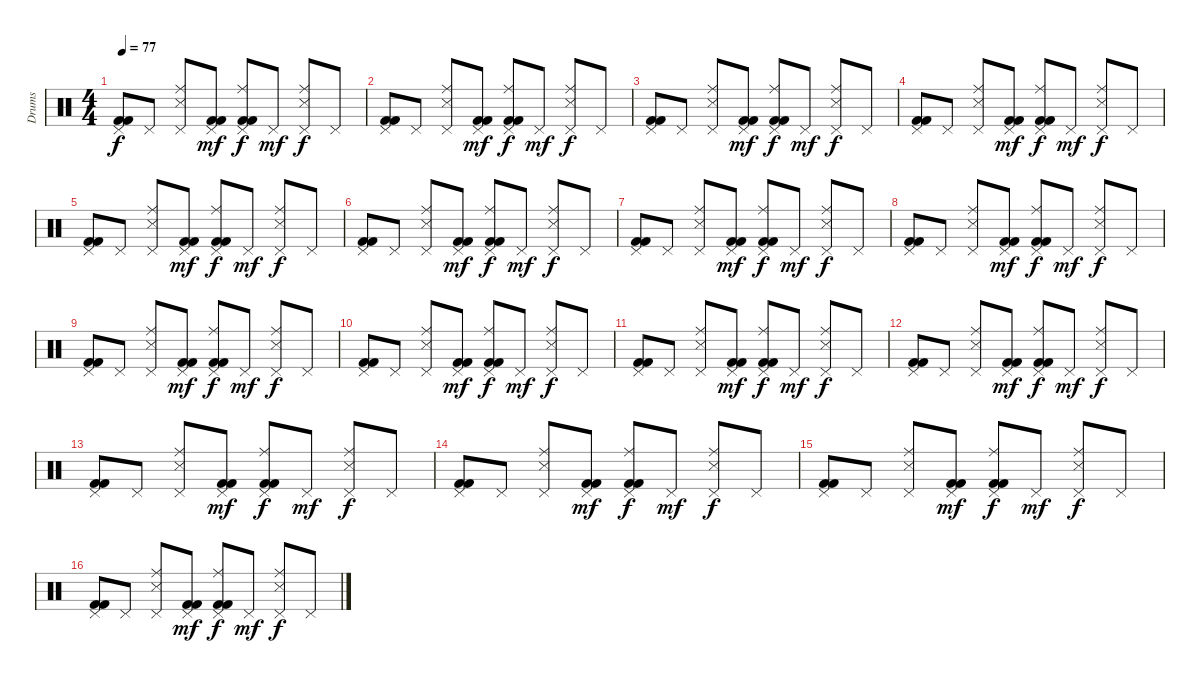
\track ("Drums" "Drums") {instrument percussion}
\staff {score}
\articulation defaults
\ts (4 4)
\tempo 77
\clef neutral
\ks c
("Pedal Hi-Hat (hit)" "Kick (hit) 2" "Kick (hit) 2").8{dy f} "Pedal Hi-Hat (hit)".8 ("Pedal Hi-Hat (hit)" "Ride (middle)" "Snare (side stick) 3").8 ("Pedal Hi-Hat (hit)" "Kick (hit) 2" "Kick (hit) 2").8{dy mf} ("Pedal Hi-Hat (hit)" "Ride (middle)" "Kick (hit) 2" "Kick (hit) 2").8{dy f} "Pedal Hi-Hat (hit)".8{dy mf} ("Pedal Hi-Hat (hit)" "Ride (middle)" "Snare (side stick) 3").8{dy f} "Pedal Hi-Hat (hit)".8 |
("Pedal Hi-Hat (hit)" "Kick (hit) 2" "Kick (hit) 2").8 "Pedal Hi-Hat (hit)".8 ("Pedal Hi-Hat (hit)" "Ride (middle)" "Snare (side stick) 3").8 ("Pedal Hi-Hat (hit)" "Kick (hit) 2" "Kick (hit) 2").8{dy mf} ("Pedal Hi-Hat (hit)" "Ride (middle)" "Kick (hit) 2" "Kick (hit) 2").8{dy f} "Pedal Hi-Hat (hit)".8{dy mf} ("Pedal Hi-Hat (hit)" "Ride (middle)" "Snare (side stick) 3").8{dy f} "Pedal Hi-Hat (hit)".8 |
("Pedal Hi-Hat (hit)" "Kick (hit) 2" "Kick (hit) 2").8 "Pedal Hi-Hat (hit)".8 ("Pedal Hi-Hat (hit)" "Ride (middle)" "Snare (side stick) 3").8 ("Pedal Hi-Hat (hit)" "Kick (hit) 2" "Kick (hit) 2").8{dy mf} ("Pedal Hi-Hat (hit)" "Ride (middle)" "Kick (hit) 2" "Kick (hit) 2").8{dy f} "Pedal Hi-Hat (hit)".8{dy mf} ("Pedal Hi-Hat (hit)" "Ride (middle)" "Snare (side stick) 3").8{dy f} "Pedal Hi-Hat (hit)".8 |
("Pedal Hi-Hat (hit)" "Kick (hit) 2" "Kick (hit) 2").8 "Pedal Hi-Hat (hit)".8 ("Pedal Hi-Hat (hit)" "Ride (middle)" "Snare (side stick) 3").8 ("Pedal Hi-Hat (hit)" "Kick (hit) 2" "Kick (hit) 2").8{dy mf} ("Pedal Hi-Hat (hit)" "Ride (middle)" "Kick (hit) 2" "Kick (hit) 2").8{dy f} "Pedal Hi-Hat (hit)".8{dy mf} ("Pedal Hi-Hat (hit)" "Ride (middle)" "Snare (side stick) 3").8{dy f} "Pedal Hi-Hat (hit)".8 |
("Pedal Hi-Hat (hit)" "Kick (hit) 2" "Kick (hit) 2").8 "Pedal Hi-Hat (hit)".8 ("Pedal Hi-Hat (hit)" "Ride (middle)" "Snare (side stick) 3").8 ("Pedal Hi-Hat (hit)" "Kick (hit) 2" "Kick (hit) 2").8{dy mf} ("Pedal Hi-Hat (hit)" "Ride (middle)" "Kick (hit) 2" "Kick (hit) 2").8{dy f} "Pedal Hi-Hat (hit)".8{dy mf} ("Pedal Hi-Hat (hit)" "Ride (middle)" "Snare (side stick) 3").8{dy f} "Pedal Hi-Hat (hit)".8 |
("Pedal Hi-Hat (hit)" "Kick (hit) 2" "Kick (hit) 2").8 "Pedal Hi-Hat (hit)".8 ("Pedal Hi-Hat (hit)" "Ride (middle)" "Snare (side stick) 3").8 ("Pedal Hi-Hat (hit)" "Kick (hit) 2" "Kick (hit) 2").8{dy mf} ("Pedal Hi-Hat (hit)" "Ride (middle)" "Kick (hit) 2" "Kick (hit) 2").8{dy f} "Pedal Hi-Hat (hit)".8{dy mf} ("Pedal Hi-Hat (hit)" "Ride (middle)" "Snare (side stick) 3").8{dy f} "Pedal Hi-Hat (hit)".8 |
("Pedal Hi-Hat (hit)" "Kick (hit) 2" "Kick (hit) 2").8 "Pedal Hi-Hat (hit)".8 ("Pedal Hi-Hat (hit)" "Ride (middle)" "Snare (side stick) 3").8 ("Pedal Hi-Hat (hit)" "Kick (hit) 2" "Kick (hit) 2").8{dy mf} ("Pedal Hi-Hat (hit)" "Ride (middle)" "Kick (hit) 2" "Kick (hit) 2").8{dy f} "Pedal Hi-Hat (hit)".8{dy mf} ("Pedal Hi-Hat (hit)" "Ride (middle)" "Snare (side stick) 3").8{dy f} "Pedal Hi-Hat (hit)".8 |
("Pedal Hi-Hat (hit)" "Kick (hit) 2" "Kick (hit) 2").8 "Pedal Hi-Hat (hit)".8 ("Pedal Hi-Hat (hit)" "Ride (middle)" "Snare (side stick) 3").8 ("Pedal Hi-Hat (hit)" "Kick (hit) 2" "Kick (hit) 2").8{dy mf} ("Pedal Hi-Hat (hit)" "Ride (middle)" "Kick (hit) 2" "Kick (hit) 2").8{dy f} "Pedal Hi-Hat (hit)".8{dy mf} ("Pedal Hi-Hat (hit)" "Ride (middle)" "Snare (side stick) 3").8{dy f} "Pedal Hi-Hat (hit)".8 |
("Pedal Hi-Hat (hit)" "Kick (hit) 2" "Kick (hit) 2").8 "Pedal Hi-Hat (hit)".8 ("Pedal Hi-Hat (hit)" "Ride (middle)" "Snare (side stick) 3").8 ("Pedal Hi-Hat (hit)" "Kick (hit) 2" "Kick (hit) 2").8{dy mf} ("Pedal Hi-Hat (hit)" "Ride (middle)" "Kick (hit) 2" "Kick (hit) 2").8{dy f} "Pedal Hi-Hat (hit)".8{dy mf} ("Pedal Hi-Hat (hit)" "Ride (middle)" "Snare (side stick) 3").8{dy f} "Pedal Hi-Hat (hit)".8 |
("Pedal Hi-Hat (hit)" "Kick (hit) 2" "Kick (hit) 2").8 "Pedal Hi-Hat (hit)".8 ("Pedal Hi-Hat (hit)" "Ride (middle)" "Snare (side stick) 3").8 ("Pedal Hi-Hat (hit)" "Kick (hit) 2" "Kick (hit) 2").8{dy mf} ("Pedal Hi-Hat (hit)" "Ride (middle)" "Kick (hit) 2" "Kick (hit) 2").8{dy f} "Pedal Hi-Hat (hit)".8{dy mf} ("Pedal Hi-Hat (hit)" "Ride (middle)" "Snare (side stick) 3").8{dy f} "Pedal Hi-Hat (hit)".8 |
("Pedal Hi-Hat (hit)" "Kick (hit) 2" "Kick (hit) 2").8 "Pedal Hi-Hat (hit)".8 ("Pedal Hi-Hat (hit)" "Ride (middle)" "Snare (side stick) 3").8 ("Pedal Hi-Hat (hit)" "Kick (hit) 2" "Kick (hit) 2").8{dy mf} ("Pedal Hi-Hat (hit)" "Ride (middle)" "Kick (hit) 2" "Kick (hit) 2").8{dy f} "Pedal Hi-Hat (hit)".8{dy mf} ("Pedal Hi-Hat (hit)" "Ride (middle)" "Snare (side stick) 3").8{dy f} "Pedal Hi-Hat (hit)".8 |
("Pedal Hi-Hat (hit)" "Kick (hit) 2" "Kick (hit) 2").8 "Pedal Hi-Hat (hit)".8 ("Pedal Hi-Hat (hit)" "Ride (middle)" "Snare (side stick) 3").8 ("Pedal Hi-Hat (hit)" "Kick (hit) 2" "Kick (hit) 2").8{dy mf} ("Pedal Hi-Hat (hit)" "Ride (middle)" "Kick (hit) 2" "Kick (hit) 2").8{dy f} "Pedal Hi-Hat (hit)".8{dy mf} ("Pedal Hi-Hat (hit)" "Ride (middle)" "Snare (side stick) 3").8{dy f} "Pedal Hi-Hat (hit)".8 |
("Pedal Hi-Hat (hit)" "Kick (hit) 2" "Kick (hit) 2").8 "Pedal Hi-Hat (hit)".8 ("Pedal Hi-Hat (hit)" "Ride (middle)" "Snare (side stick) 3").8 ("Pedal Hi-Hat (hit)" "Kick (hit) 2" "Kick (hit) 2").8{dy mf} ("Pedal Hi-Hat (hit)" "Ride (middle)" "Kick (hit) 2" "Kick (hit) 2").8{dy f} "Pedal Hi-Hat (hit)".8{dy mf} ("Pedal Hi-Hat (hit)" "Ride (middle)" "Snare (side stick) 3").8{dy f} "Pedal Hi-Hat (hit)".8 |
("Pedal Hi-Hat (hit)" "Kick (hit) 2" "Kick (hit) 2").8 "Pedal Hi-Hat (hit)".8 ("Pedal Hi-Hat (hit)" "Ride (middle)" "Snare (side stick) 3").8 ("Pedal Hi-Hat (hit)" "Kick (hit) 2" "Kick (hit) 2").8{dy mf} ("Pedal Hi-Hat (hit)" "Ride (middle)" "Kick (hit) 2" "Kick (hit) 2").8{dy f} "Pedal Hi-Hat (hit)".8{dy mf} ("Pedal Hi-Hat (hit)" "Ride (middle)" "Snare (side stick) 3").8{dy f} "Pedal Hi-Hat (hit)".8 |
("Pedal Hi-Hat (hit)" "Kick (hit) 2" "Kick (hit) 2").8 "Pedal Hi-Hat (hit)".8 ("Pedal Hi-Hat (hit)" "Ride (middle)" "Snare (side stick) 3").8 ("Pedal Hi-Hat (hit)" "Kick (hit) 2" "Kick (hit) 2").8{dy mf} ("Pedal Hi-Hat (hit)" "Ride (middle)" "Kick (hit) 2" "Kick (hit) 2").8{dy f} "Pedal Hi-Hat (hit)".8{dy mf} ("Pedal Hi-Hat (hit)" "Ride (middle)" "Snare (side stick) 3").8{dy f} "Pedal Hi-Hat (hit)".8 |
("Pedal Hi-Hat (hit)" "Kick (hit) 2" "Kick (hit) 2").8 "Pedal Hi-Hat (hit)".8 ("Pedal Hi-Hat (hit)" "Ride (middle)" "Snare (side stick) 3").8 ("Pedal Hi-Hat (hit)" "Kick (hit) 2" "Kick (hit) 2").8{dy mf} ("Pedal Hi-Hat (hit)" "Ride (middle)" "Kick (hit) 2" "Kick (hit) 2").8{dy f} "Pedal Hi-Hat (hit)".8{dy mf} ("Pedal Hi-Hat (hit)" "Ride (middle)" "Snare (side stick) 3").8{dy f} "Pedal Hi-Hat (hit)".8
